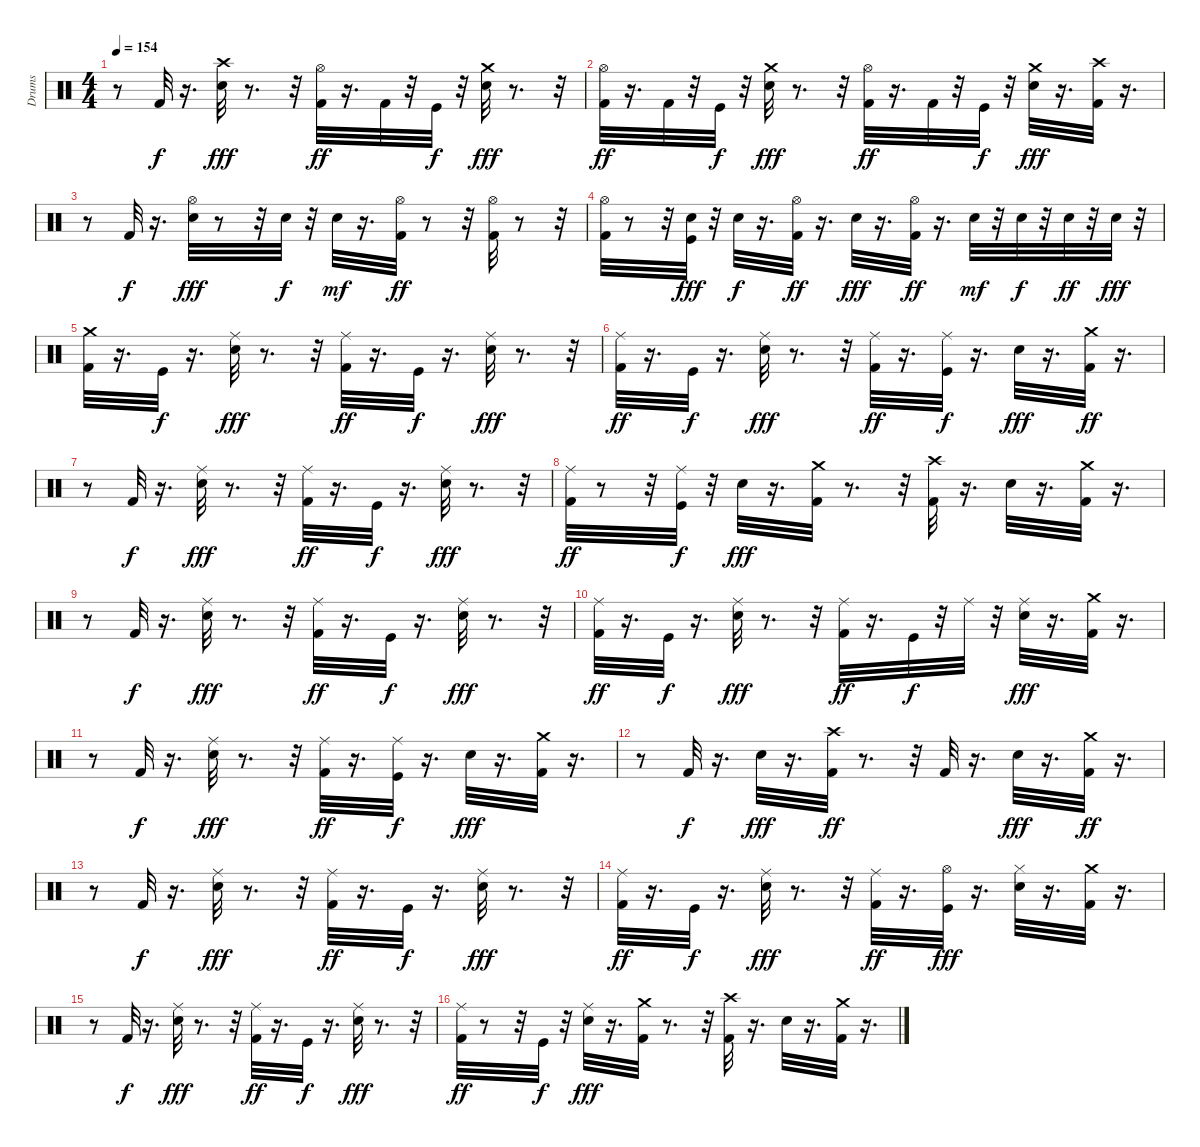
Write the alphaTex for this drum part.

\track ("Drums" "Drums") {instrument percussion}
\staff {score}
\articulation defaults
\ts (4 4)
\tempo 154
\clef neutral
\ks c
r.8{dy ff} "Kick (hit) 2".32{dy f} r.16{d} ("Snare (hit) 2" "Crash high (hit)").32{dy fff} r.8{d} r.32 ("Kick (hit) 2" "Hi-Hat (open)").32{dy ff} r.16{d} "Kick (hit) 2".32 r.32 "Kick (hit)".32{dy f} r.32 ("Snare (hit) 2" "Crash medium (hit)").32{dy fff} r.8{d} r.32 |
("Kick (hit) 2" "Hi-Hat (open)").32{dy ff} r.16{d} "Kick (hit) 2".32 r.32 "Kick (hit)".32{dy f} r.32 ("Snare (hit) 2" "Crash medium (hit)").32{dy fff} r.8{d} r.32 ("Kick (hit) 2" "Hi-Hat (open)").32{dy ff} r.16{d} "Kick (hit) 2".32 r.32 "Kick (hit)".32{dy f} r.32 ("Snare (hit) 2" "Crash medium (hit)").32{dy fff} r.16{d} ("Kick (hit) 2" "Crash high (hit)").32 r.16{d} |
r.8 "Kick (hit) 2".32{dy f} r.16{d} ("Snare (hit) 2" "Hi-Hat (open)").32{dy fff} r.8 r.32 "Snare (hit) 2".32{dy f} r.32 "Snare (hit) 2".32{dy mf} r.16{d} ("Kick (hit) 2" "Hi-Hat (open)").32{dy ff} r.8 r.32 ("Hi-Hat (open)" "Kick (hit) 2").32 r.8 r.32 |
("Kick (hit) 2" "Hi-Hat (open)").32 r.8 r.32 ("Snare (hit) 2" "Kick (hit)").32{dy fff} r.32 "Snare (hit) 2".32{dy f} r.16{d} ("Kick (hit) 2" "Hi-Hat (open)").32{dy ff} r.16{d} "Snare (hit) 2".32{dy fff} r.16{d} ("Kick (hit) 2" "Hi-Hat (open)").32{dy ff} r.16{d} "Snare (hit) 2".32{dy mf} r.32 "Snare (hit) 2".32{dy f} r.32 "Snare (hit) 2".32{dy ff} r.32 "Snare (hit) 2".32{dy fff} r.32 |
("Kick (hit) 2" "Crash medium (hit)").32 r.16{d} "Kick (hit)".32{dy f} r.16{d} ("Snare (hit) 2" "Ride (middle)").32{dy fff} r.8{d} r.32 ("Kick (hit) 2" "Ride (middle)").32{dy ff} r.16{d} "Kick (hit)".32{dy f} r.16{d} ("Snare (hit) 2" "Ride (middle)").32{dy fff} r.8{d} r.32 |
("Kick (hit) 2" "Ride (middle)").32{dy ff} r.16{d} "Kick (hit)".32{dy f} r.16{d} ("Snare (hit) 2" "Ride (middle)").32{dy fff} r.8{d} r.32 ("Kick (hit) 2" "Ride (middle)").32{dy ff} r.16{d} ("Kick (hit)" "Ride (middle)").32{dy f} r.16{d} "Snare (hit) 2".32{dy fff} r.16{d} ("Crash medium (hit)" "Kick (hit) 2").32{dy ff} r.16{d} |
r.8 "Kick (hit) 2".32{dy f} r.16{d} ("Snare (hit) 2" "Ride (middle)").32{dy fff} r.8{d} r.32 ("Kick (hit) 2" "Ride (middle)").32{dy ff} r.16{d} "Kick (hit)".32{dy f} r.16{d} ("Snare (hit) 2" "Ride (middle)").32{dy fff} r.8{d} r.32 |
("Kick (hit) 2" "Ride (middle)").32{dy ff} r.8 r.32 ("Kick (hit)" "Ride (middle)").32{dy f} r.32 "Snare (hit) 2".32{dy fff} r.16{d} ("Kick (hit) 2" "Crash medium (hit)").32 r.8{d} r.32 ("Kick (hit) 2" "Crash high (hit)").32 r.16{d} "Snare (hit) 2".32 r.16{d} ("Kick (hit) 2" "Crash medium (hit)").32 r.16{d} |
r.8 "Kick (hit) 2".32{dy f} r.16{d} ("Snare (hit) 2" "Ride (middle)").32{dy fff} r.8{d} r.32 ("Kick (hit) 2" "Ride (middle)").32{dy ff} r.16{d} "Kick (hit)".32{dy f} r.16{d} ("Snare (hit) 2" "Ride (middle)").32{dy fff} r.8{d} r.32 |
("Kick (hit) 2" "Ride (middle)").32{dy ff} r.16{d} "Kick (hit)".32{dy f} r.16{d} ("Snare (hit) 2" "Ride (middle)").32{dy fff} r.8{d} r.32 ("Kick (hit) 2" "Ride (middle)").32{dy ff} r.16{d} "Kick (hit)".32{dy f} r.32 "Ride (middle)".32 r.32 ("Snare (hit) 2" "Ride (middle)").32{dy fff} r.16{d} ("Kick (hit) 2" "Crash medium (hit)").32 r.16{d} |
r.8 "Kick (hit) 2".32{dy f} r.16{d} ("Snare (hit) 2" "Ride (middle)").32{dy fff} r.8{d} r.32 ("Kick (hit) 2" "Ride (middle)").32{dy ff} r.16{d} ("Kick (hit)" "Ride (middle)").32{dy f} r.16{d} "Snare (hit) 2".32{dy fff} r.16{d} ("Kick (hit) 2" "Crash medium (hit)").32 r.16{d} |
r.8 "Kick (hit) 2".32{dy f} r.16{d} "Snare (hit) 2".32{dy fff} r.16{d} ("Crash high (hit)" "Kick (hit) 2").32{dy ff} r.8{d} r.32 "Kick (hit) 2".32 r.16{d} "Snare (hit) 2".32{dy fff} r.16{d} ("Crash medium (hit)" "Kick (hit) 2").32{dy ff} r.16{d} |
r.8 "Kick (hit) 2".32{dy f} r.16{d} ("Snare (hit) 2" "Ride (middle)").32{dy fff} r.8{d} r.32 ("Kick (hit) 2" "Ride (middle)").32{dy ff} r.16{d} "Kick (hit)".32{dy f} r.16{d} ("Snare (hit) 2" "Ride (middle)").32{dy fff} r.8{d} r.32 |
("Kick (hit) 2" "Ride (middle)").32{dy ff} r.16{d} "Kick (hit)".32{dy f} r.16{d} ("Snare (hit) 2" "Ride (middle)").32{dy fff} r.8{d} r.32 ("Kick (hit) 2" "Ride (middle)").32{dy ff} r.16{d} ("Kick (hit)" "Hi-Hat (open)").32{dy fff} r.16{d} ("Snare (hit) 2" "Hi-Hat (closed)").32 r.16{d} ("Kick (hit) 2" "Crash medium (hit)").32 r.16{d} |
r.8 "Kick (hit) 2".32{dy f} r.16{d} ("Snare (hit) 2" "Ride (middle)").32{dy fff} r.8{d} r.32 ("Kick (hit) 2" "Ride (middle)").32{dy ff} r.16{d} "Kick (hit)".32{dy f} r.16{d} ("Snare (hit) 2" "Ride (middle)").32{dy fff} r.8{d} r.32 |
("Kick (hit) 2" "Ride (middle)").32{dy ff} r.8 r.32 "Kick (hit)".32{dy f} r.32 ("Snare (hit) 2" "Ride (middle)").32{dy fff} r.16{d} ("Kick (hit) 2" "Crash medium (hit)").32 r.8{d} r.32 ("Kick (hit) 2" "Crash high (hit)").32 r.16{d} "Snare (hit) 2".32 r.16{d} ("Kick (hit) 2" "Crash medium (hit)").32 r.16{d}
